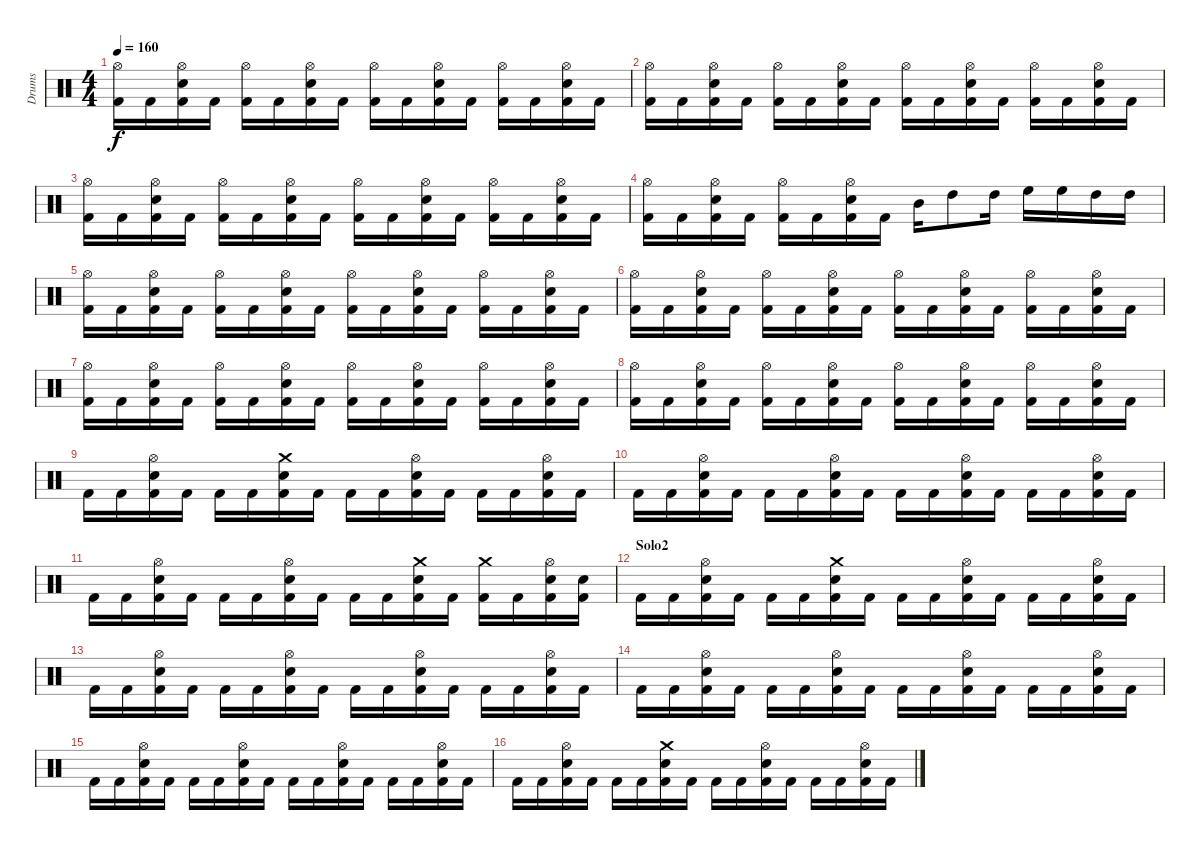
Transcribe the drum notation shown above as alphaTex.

\track ("Drums" "Drums") {instrument percussion}
\staff {score}
\articulation defaults
\ts (4 4)
\tempo 160
\clef neutral
\ks c
("Hi-Hat (open)" "Kick (hit) 2").16{dy f} "Kick (hit) 2".16 ("Hi-Hat (open)" "Electric Snare (hit)" "Kick (hit) 2").16 "Kick (hit) 2".16 ("Hi-Hat (open)" "Kick (hit) 2").16 "Kick (hit) 2".16 ("Hi-Hat (open)" "Electric Snare (hit)" "Kick (hit) 2").16 "Kick (hit) 2".16 ("Hi-Hat (open)" "Kick (hit) 2").16 "Kick (hit) 2".16 ("Hi-Hat (open)" "Electric Snare (hit)" "Kick (hit) 2").16 "Kick (hit) 2".16 ("Hi-Hat (open)" "Kick (hit) 2").16 "Kick (hit) 2".16 ("Hi-Hat (open)" "Electric Snare (hit)" "Kick (hit) 2").16 "Kick (hit) 2".16 |
("Hi-Hat (open)" "Kick (hit) 2").16 "Kick (hit) 2".16 ("Hi-Hat (open)" "Electric Snare (hit)" "Kick (hit) 2").16 "Kick (hit) 2".16 ("Hi-Hat (open)" "Kick (hit) 2").16 "Kick (hit) 2".16 ("Hi-Hat (open)" "Electric Snare (hit)" "Kick (hit) 2").16 "Kick (hit) 2".16 ("Hi-Hat (open)" "Kick (hit) 2").16 "Kick (hit) 2".16 ("Hi-Hat (open)" "Electric Snare (hit)" "Kick (hit) 2").16 "Kick (hit) 2".16 ("Hi-Hat (open)" "Kick (hit) 2").16 "Kick (hit) 2".16 ("Hi-Hat (open)" "Electric Snare (hit)" "Kick (hit) 2").16 "Kick (hit) 2".16 |
("Hi-Hat (open)" "Kick (hit) 2").16 "Kick (hit) 2".16 ("Hi-Hat (open)" "Electric Snare (hit)" "Kick (hit) 2").16 "Kick (hit) 2".16 ("Hi-Hat (open)" "Kick (hit) 2").16 "Kick (hit) 2".16 ("Hi-Hat (open)" "Electric Snare (hit)" "Kick (hit) 2").16 "Kick (hit) 2".16 ("Hi-Hat (open)" "Kick (hit) 2").16 "Kick (hit) 2".16 ("Hi-Hat (open)" "Electric Snare (hit)" "Kick (hit) 2").16 "Kick (hit) 2".16 ("Hi-Hat (open)" "Kick (hit) 2").16 "Kick (hit) 2".16 ("Hi-Hat (open)" "Electric Snare (hit)" "Kick (hit) 2").16 "Kick (hit) 2".16 |
("Hi-Hat (open)" "Kick (hit) 2").16 "Kick (hit) 2".16 ("Hi-Hat (open)" "Electric Snare (hit)" "Kick (hit) 2").16 "Kick (hit) 2".16 ("Hi-Hat (open)" "Kick (hit) 2").16 "Kick (hit) 2".16 ("Hi-Hat (open)" "Electric Snare (hit)" "Kick (hit) 2").16 "Kick (hit) 2".16 "Mid Tom (hit)".16 "High Tom (hit)".8 "High Tom (hit)".16 "High Floor Tom (hit)".16 "High Floor Tom (hit)".16 "High Tom (hit)".16 "High Tom (hit)".16 |
("Hi-Hat (open)" "Kick (hit) 2").16 "Kick (hit) 2".16 ("Hi-Hat (open)" "Electric Snare (hit)" "Kick (hit) 2").16 "Kick (hit) 2".16 ("Hi-Hat (open)" "Kick (hit) 2").16 "Kick (hit) 2".16 ("Hi-Hat (open)" "Electric Snare (hit)" "Kick (hit) 2").16 "Kick (hit) 2".16 ("Hi-Hat (open)" "Kick (hit) 2").16 "Kick (hit) 2".16 ("Hi-Hat (open)" "Electric Snare (hit)" "Kick (hit) 2").16 "Kick (hit) 2".16 ("Hi-Hat (open)" "Kick (hit) 2").16 "Kick (hit) 2".16 ("Hi-Hat (open)" "Electric Snare (hit)" "Kick (hit) 2").16 "Kick (hit) 2".16 |
("Hi-Hat (open)" "Kick (hit) 2").16 "Kick (hit) 2".16 ("Hi-Hat (open)" "Electric Snare (hit)" "Kick (hit) 2").16 "Kick (hit) 2".16 ("Hi-Hat (open)" "Kick (hit) 2").16 "Kick (hit) 2".16 ("Hi-Hat (open)" "Electric Snare (hit)" "Kick (hit) 2").16 "Kick (hit) 2".16 ("Hi-Hat (open)" "Kick (hit) 2").16 "Kick (hit) 2".16 ("Hi-Hat (open)" "Electric Snare (hit)" "Kick (hit) 2").16 "Kick (hit) 2".16 ("Hi-Hat (open)" "Kick (hit) 2").16 "Kick (hit) 2".16 ("Hi-Hat (open)" "Electric Snare (hit)" "Kick (hit) 2").16 "Kick (hit) 2".16 |
("Hi-Hat (open)" "Kick (hit) 2").16 "Kick (hit) 2".16 ("Hi-Hat (open)" "Electric Snare (hit)" "Kick (hit) 2").16 "Kick (hit) 2".16 ("Hi-Hat (open)" "Kick (hit) 2").16 "Kick (hit) 2".16 ("Hi-Hat (open)" "Electric Snare (hit)" "Kick (hit) 2").16 "Kick (hit) 2".16 ("Hi-Hat (open)" "Kick (hit) 2").16 "Kick (hit) 2".16 ("Hi-Hat (open)" "Electric Snare (hit)" "Kick (hit) 2").16 "Kick (hit) 2".16 ("Hi-Hat (open)" "Kick (hit) 2").16 "Kick (hit) 2".16 ("Hi-Hat (open)" "Electric Snare (hit)" "Kick (hit) 2").16 "Kick (hit) 2".16 |
("Hi-Hat (open)" "Kick (hit) 2").16 "Kick (hit) 2".16 ("Hi-Hat (open)" "Electric Snare (hit)" "Kick (hit) 2").16 "Kick (hit) 2".16 ("Hi-Hat (open)" "Kick (hit) 2").16 "Kick (hit) 2".16 ("Hi-Hat (open)" "Electric Snare (hit)" "Kick (hit) 2").16 "Kick (hit) 2".16 ("Hi-Hat (open)" "Kick (hit) 2").16 "Kick (hit) 2".16 ("Hi-Hat (open)" "Electric Snare (hit)" "Kick (hit) 2").16 "Kick (hit) 2".16 ("Hi-Hat (open)" "Kick (hit) 2").16 "Kick (hit) 2".16 ("Hi-Hat (open)" "Electric Snare (hit)" "Kick (hit) 2").16 "Kick (hit) 2".16 |
"Kick (hit) 2".16 "Kick (hit) 2".16 ("Hi-Hat (open)" "Electric Snare (hit)" "Kick (hit) 2").16 "Kick (hit) 2".16 "Kick (hit) 2".16 "Kick (hit) 2".16 ("Crash medium (hit)" "Electric Snare (hit)" "Kick (hit) 2").16 "Kick (hit) 2".16 "Kick (hit) 2".16 "Kick (hit) 2".16 ("Hi-Hat (open)" "Electric Snare (hit)" "Kick (hit) 2").16 "Kick (hit) 2".16 "Kick (hit) 2".16 "Kick (hit) 2".16 ("Hi-Hat (open)" "Electric Snare (hit)" "Kick (hit) 2").16 "Kick (hit) 2".16 |
"Kick (hit) 2".16 "Kick (hit) 2".16 ("Hi-Hat (open)" "Electric Snare (hit)" "Kick (hit) 2").16 "Kick (hit) 2".16 "Kick (hit) 2".16 "Kick (hit) 2".16 ("Hi-Hat (open)" "Electric Snare (hit)" "Kick (hit) 2").16 "Kick (hit) 2".16 "Kick (hit) 2".16 "Kick (hit) 2".16 ("Hi-Hat (open)" "Electric Snare (hit)" "Kick (hit) 2").16 "Kick (hit) 2".16 "Kick (hit) 2".16 "Kick (hit) 2".16 ("Hi-Hat (open)" "Electric Snare (hit)" "Kick (hit) 2").16 "Kick (hit) 2".16 |
"Kick (hit) 2".16 "Kick (hit) 2".16 ("Hi-Hat (open)" "Electric Snare (hit)" "Kick (hit) 2").16 "Kick (hit) 2".16 "Kick (hit) 2".16 "Kick (hit) 2".16 ("Hi-Hat (open)" "Electric Snare (hit)" "Kick (hit) 2").16 "Kick (hit) 2".16 "Kick (hit) 2".16 "Kick (hit) 2".16 ("Crash medium (hit)" "Electric Snare (hit)" "Kick (hit) 2").16 "Kick (hit) 2".16 ("Crash medium (hit)" "Kick (hit) 2").16 "Kick (hit) 2".16 ("Hi-Hat (open)" "Electric Snare (hit)" "Kick (hit) 2").16 ("Electric Snare (hit)" "Kick (hit) 2").16 |
\section ("" "Solo2")
"Kick (hit) 2".16 "Kick (hit) 2".16 ("Hi-Hat (open)" "Electric Snare (hit)" "Kick (hit) 2").16 "Kick (hit) 2".16 "Kick (hit) 2".16 "Kick (hit) 2".16 ("Crash medium (hit)" "Electric Snare (hit)" "Kick (hit) 2").16 "Kick (hit) 2".16 "Kick (hit) 2".16 "Kick (hit) 2".16 ("Hi-Hat (open)" "Electric Snare (hit)" "Kick (hit) 2").16 "Kick (hit) 2".16 "Kick (hit) 2".16 "Kick (hit) 2".16 ("Hi-Hat (open)" "Electric Snare (hit)" "Kick (hit) 2").16 "Kick (hit) 2".16 |
"Kick (hit) 2".16 "Kick (hit) 2".16 ("Hi-Hat (open)" "Electric Snare (hit)" "Kick (hit) 2").16 "Kick (hit) 2".16 "Kick (hit) 2".16 "Kick (hit) 2".16 ("Hi-Hat (open)" "Electric Snare (hit)" "Kick (hit) 2").16 "Kick (hit) 2".16 "Kick (hit) 2".16 "Kick (hit) 2".16 ("Hi-Hat (open)" "Electric Snare (hit)" "Kick (hit) 2").16 "Kick (hit) 2".16 "Kick (hit) 2".16 "Kick (hit) 2".16 ("Hi-Hat (open)" "Electric Snare (hit)" "Kick (hit) 2").16 "Kick (hit) 2".16 |
"Kick (hit) 2".16 "Kick (hit) 2".16 ("Hi-Hat (open)" "Electric Snare (hit)" "Kick (hit) 2").16 "Kick (hit) 2".16 "Kick (hit) 2".16 "Kick (hit) 2".16 ("Hi-Hat (open)" "Electric Snare (hit)" "Kick (hit) 2").16 "Kick (hit) 2".16 "Kick (hit) 2".16 "Kick (hit) 2".16 ("Hi-Hat (open)" "Electric Snare (hit)" "Kick (hit) 2").16 "Kick (hit) 2".16 "Kick (hit) 2".16 "Kick (hit) 2".16 ("Hi-Hat (open)" "Electric Snare (hit)" "Kick (hit) 2").16 "Kick (hit) 2".16 |
"Kick (hit) 2".16 "Kick (hit) 2".16 ("Hi-Hat (open)" "Electric Snare (hit)" "Kick (hit) 2").16 "Kick (hit) 2".16 "Kick (hit) 2".16 "Kick (hit) 2".16 ("Hi-Hat (open)" "Electric Snare (hit)" "Kick (hit) 2").16 "Kick (hit) 2".16 "Kick (hit) 2".16 "Kick (hit) 2".16 ("Hi-Hat (open)" "Electric Snare (hit)" "Kick (hit) 2").16 "Kick (hit) 2".16 "Kick (hit) 2".16 "Kick (hit) 2".16 ("Hi-Hat (open)" "Electric Snare (hit)" "Kick (hit) 2").16 "Kick (hit) 2".16 |
"Kick (hit) 2".16 "Kick (hit) 2".16 ("Hi-Hat (open)" "Electric Snare (hit)" "Kick (hit) 2").16 "Kick (hit) 2".16 "Kick (hit) 2".16 "Kick (hit) 2".16 ("Crash medium (hit)" "Electric Snare (hit)" "Kick (hit) 2").16 "Kick (hit) 2".16 "Kick (hit) 2".16 "Kick (hit) 2".16 ("Hi-Hat (open)" "Electric Snare (hit)" "Kick (hit) 2").16 "Kick (hit) 2".16 "Kick (hit) 2".16 "Kick (hit) 2".16 ("Hi-Hat (open)" "Electric Snare (hit)" "Kick (hit) 2").16 "Kick (hit) 2".16
